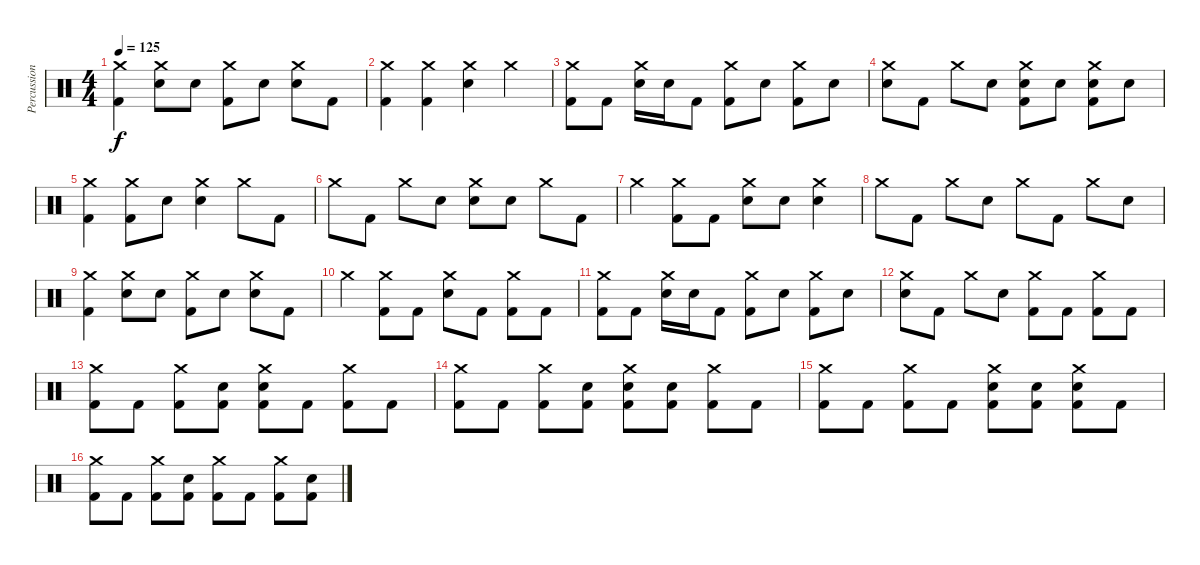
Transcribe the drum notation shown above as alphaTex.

\track ("Percussion" "Percussion") {instrument percussion}
\staff {score}
\articulation defaults
\ts (4 4)
\tempo 125
\clef neutral
\ks c
("Crash medium (hit)" "Kick (hit) 2").4{dy f} ("Crash medium (hit)" "Electric Snare (hit)").8 "Electric Snare (hit)".8 ("Crash medium (hit)" "Kick (hit) 2").8 "Electric Snare (hit)".8 ("Crash medium (hit)" "Electric Snare (hit)").8 "Kick (hit) 2".8 |
("Crash medium (hit)" "Kick (hit) 2").4 ("Crash medium (hit)" "Kick (hit) 2").4 ("Crash medium (hit)" "Electric Snare (hit)").4 "Crash medium (hit)".4 |
("Crash medium (hit)" "Kick (hit) 2").8 "Kick (hit) 2".8 ("Crash medium (hit)" "Electric Snare (hit)").16 "Electric Snare (hit)".16 "Kick (hit) 2".8 ("Crash medium (hit)" "Kick (hit) 2").8 "Electric Snare (hit)".8 ("Crash medium (hit)" "Kick (hit) 2").8 "Electric Snare (hit)".8 |
("Crash medium (hit)" "Electric Snare (hit)").8 "Kick (hit) 2".8 "Crash medium (hit)".8 "Electric Snare (hit)".8 ("Crash medium (hit)" "Electric Snare (hit)" "Kick (hit) 2").8 "Electric Snare (hit)".8 ("Crash medium (hit)" "Electric Snare (hit)" "Kick (hit) 2").8 "Electric Snare (hit)".8 |
("Crash medium (hit)" "Kick (hit) 2").4 ("Crash medium (hit)" "Kick (hit) 2").8 "Electric Snare (hit)".8 ("Crash medium (hit)" "Electric Snare (hit)").4 "Crash medium (hit)".8 "Kick (hit) 2".8 |
"Crash medium (hit)".8 "Kick (hit) 2".8 "Crash medium (hit)".8 "Electric Snare (hit)".8 ("Crash medium (hit)" "Electric Snare (hit)").8 "Electric Snare (hit)".8 "Crash medium (hit)".8 "Kick (hit) 2".8 |
"Crash medium (hit)".4 ("Crash medium (hit)" "Kick (hit) 2").8 "Kick (hit) 2".8 ("Crash medium (hit)" "Electric Snare (hit)").8 "Electric Snare (hit)".8 ("Crash medium (hit)" "Electric Snare (hit)").4 |
"Crash medium (hit)".8 "Kick (hit) 2".8 "Crash medium (hit)".8 "Electric Snare (hit)".8 "Crash medium (hit)".8 "Kick (hit) 2".8 "Crash medium (hit)".8 "Electric Snare (hit)".8 |
("Crash medium (hit)" "Kick (hit) 2").4 ("Crash medium (hit)" "Electric Snare (hit)").8 "Electric Snare (hit)".8 ("Crash medium (hit)" "Kick (hit) 2").8 "Electric Snare (hit)".8 ("Crash medium (hit)" "Electric Snare (hit)").8 "Kick (hit) 2".8 |
"Crash medium (hit)".4 ("Crash medium (hit)" "Kick (hit) 2").8 "Kick (hit) 2".8 ("Crash medium (hit)" "Electric Snare (hit)").8 "Kick (hit) 2".8 ("Crash medium (hit)" "Kick (hit) 2").8 "Kick (hit) 2".8 |
("Crash medium (hit)" "Kick (hit) 2").8 "Kick (hit) 2".8 ("Crash medium (hit)" "Electric Snare (hit)").16 "Electric Snare (hit)".16 "Kick (hit) 2".8 ("Crash medium (hit)" "Kick (hit) 2").8 "Electric Snare (hit)".8 ("Crash medium (hit)" "Kick (hit) 2").8 "Electric Snare (hit)".8 |
("Crash medium (hit)" "Electric Snare (hit)").8 "Kick (hit) 2".8 "Crash medium (hit)".8 "Electric Snare (hit)".8 ("Crash medium (hit)" "Kick (hit) 2").8 "Kick (hit) 2".8 ("Crash medium (hit)" "Kick (hit) 2").8 "Kick (hit) 2".8 |
("Crash medium (hit)" "Kick (hit) 2").8 "Kick (hit) 2".8 ("Crash medium (hit)" "Kick (hit) 2").8 ("Electric Snare (hit)" "Kick (hit) 2").8 ("Crash medium (hit)" "Electric Snare (hit)" "Kick (hit) 2").8 "Kick (hit) 2".8 ("Crash medium (hit)" "Kick (hit) 2").8 "Kick (hit) 2".8 |
("Crash medium (hit)" "Kick (hit) 2").8 "Kick (hit) 2".8 ("Crash medium (hit)" "Kick (hit) 2").8 ("Electric Snare (hit)" "Kick (hit) 2").8 ("Crash medium (hit)" "Electric Snare (hit)" "Kick (hit) 2").8 ("Electric Snare (hit)" "Kick (hit) 2").8 ("Crash medium (hit)" "Kick (hit) 2").8 "Kick (hit) 2".8 |
("Crash medium (hit)" "Kick (hit) 2").8 "Kick (hit) 2".8 ("Crash medium (hit)" "Kick (hit) 2").8 "Kick (hit) 2".8 ("Crash medium (hit)" "Electric Snare (hit)" "Kick (hit) 2").8 ("Electric Snare (hit)" "Kick (hit) 2").8 ("Crash medium (hit)" "Electric Snare (hit)" "Kick (hit) 2").8 "Kick (hit) 2".8 |
("Crash medium (hit)" "Kick (hit) 2").8 "Kick (hit) 2".8 ("Crash medium (hit)" "Kick (hit) 2").8 ("Electric Snare (hit)" "Kick (hit) 2").8 ("Crash medium (hit)" "Kick (hit) 2").8 "Kick (hit) 2".8 ("Crash medium (hit)" "Kick (hit) 2").8 ("Electric Snare (hit)" "Kick (hit) 2").8
